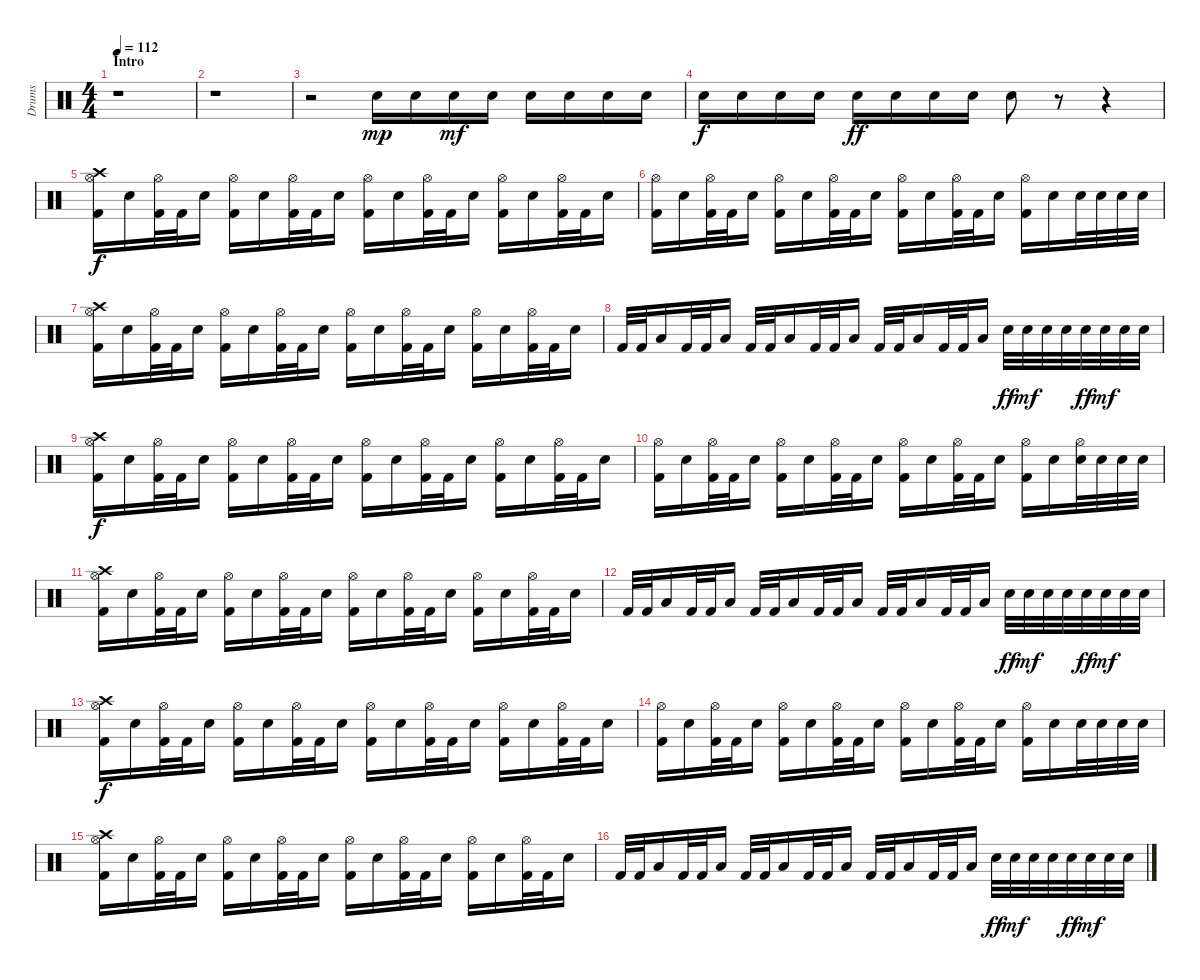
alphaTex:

\track ("Drums" "Drums") {instrument percussion}
\staff {score}
\articulation defaults
\ts (4 4)
\section ("" "Intro")
\tempo 112
\clef neutral
\ks c
r.1{dy mp} |
r.1 |
r.2 "Electric Snare (hit)".16 "Electric Snare (hit)".16 "Electric Snare (hit)".16{dy mf} "Electric Snare (hit)".16 "Electric Snare (hit)".16 "Electric Snare (hit)".16 "Electric Snare (hit)".16 "Electric Snare (hit)".16 |
"Electric Snare (hit)".16{dy f} "Electric Snare (hit)".16 "Electric Snare (hit)".16 "Electric Snare (hit)".16 "Electric Snare (hit)".16{dy ff} "Electric Snare (hit)".16 "Electric Snare (hit)".16 "Electric Snare (hit)".16 "Electric Snare (hit)".8 r.8 r.4 |
("Crash high (hit)" "Hi-Hat (open)" "Kick (hit) 2").16{dy f} "Electric Snare (hit)".16 ("Hi-Hat (open)" "Kick (hit) 2").32 "Kick (hit) 2".32 "Electric Snare (hit)".16 ("Hi-Hat (open)" "Kick (hit) 2").16 "Electric Snare (hit)".16 ("Hi-Hat (open)" "Kick (hit) 2").32 "Kick (hit) 2".32 "Electric Snare (hit)".16 ("Hi-Hat (open)" "Kick (hit) 2").16 "Electric Snare (hit)".16 ("Hi-Hat (open)" "Kick (hit) 2").32 "Kick (hit) 2".32 "Electric Snare (hit)".16 ("Hi-Hat (open)" "Kick (hit) 2").16 "Electric Snare (hit)".16 ("Hi-Hat (open)" "Kick (hit) 2").32 "Kick (hit) 2".32 "Electric Snare (hit)".16 |
("Hi-Hat (open)" "Kick (hit) 2").16 "Electric Snare (hit)".16 ("Hi-Hat (open)" "Kick (hit) 2").32 "Kick (hit) 2".32 "Electric Snare (hit)".16 ("Hi-Hat (open)" "Kick (hit) 2").16 "Electric Snare (hit)".16 ("Hi-Hat (open)" "Kick (hit) 2").32 "Kick (hit) 2".32 "Electric Snare (hit)".16 ("Hi-Hat (open)" "Kick (hit) 2").16 "Electric Snare (hit)".16 ("Hi-Hat (open)" "Kick (hit) 2").32 "Kick (hit) 2".32 "Electric Snare (hit)".16 ("Hi-Hat (open)" "Kick (hit) 2").16 "Electric Snare (hit)".16 "Electric Snare (hit)".32 "Electric Snare (hit)".32 "Electric Snare (hit)".32 "Electric Snare (hit)".32 |
("Crash high (hit)" "Hi-Hat (open)" "Kick (hit) 2").16 "Electric Snare (hit)".16 ("Hi-Hat (open)" "Kick (hit) 2").32 "Kick (hit) 2".32 "Electric Snare (hit)".16 ("Hi-Hat (open)" "Kick (hit) 2").16 "Electric Snare (hit)".16 ("Hi-Hat (open)" "Kick (hit) 2").32 "Kick (hit) 2".32 "Electric Snare (hit)".16 ("Hi-Hat (open)" "Kick (hit) 2").16 "Electric Snare (hit)".16 ("Hi-Hat (open)" "Kick (hit) 2").32 "Kick (hit) 2".32 "Electric Snare (hit)".16 ("Hi-Hat (open)" "Kick (hit) 2").16 "Electric Snare (hit)".16 ("Hi-Hat (open)" "Kick (hit) 2").32 "Kick (hit) 2".32 "Electric Snare (hit)".16 |
"Kick (hit) 2".32 "Kick (hit) 2".32 "Low Tom (hit)".16 "Kick (hit) 2".32 "Kick (hit) 2".32 "Low Tom (hit)".16 "Kick (hit) 2".32 "Kick (hit) 2".32 "Low Tom (hit)".16 "Kick (hit) 2".32 "Kick (hit) 2".32 "Low Tom (hit)".16 "Kick (hit) 2".32 "Kick (hit) 2".32 "Low Tom (hit)".16 "Kick (hit) 2".32 "Kick (hit) 2".32 "Low Tom (hit)".16 "Electric Snare (hit)".32{dy ff} "Electric Snare (hit)".32{dy mf} "Electric Snare (hit)".32 "Electric Snare (hit)".32 "Electric Snare (hit)".32{dy ff} "Electric Snare (hit)".32{dy mf} "Electric Snare (hit)".32 "Electric Snare (hit)".32 |
("Crash high (hit)" "Hi-Hat (open)" "Kick (hit) 2").16{dy f} "Electric Snare (hit)".16 ("Hi-Hat (open)" "Kick (hit) 2").32 "Kick (hit) 2".32 "Electric Snare (hit)".16 ("Hi-Hat (open)" "Kick (hit) 2").16 "Electric Snare (hit)".16 ("Hi-Hat (open)" "Kick (hit) 2").32 "Kick (hit) 2".32 "Electric Snare (hit)".16 ("Hi-Hat (open)" "Kick (hit) 2").16 "Electric Snare (hit)".16 ("Hi-Hat (open)" "Kick (hit) 2").32 "Kick (hit) 2".32 "Electric Snare (hit)".16 ("Hi-Hat (open)" "Kick (hit) 2").16 "Electric Snare (hit)".16 ("Hi-Hat (open)" "Kick (hit) 2").32 "Kick (hit) 2".32 "Electric Snare (hit)".16 |
("Hi-Hat (open)" "Kick (hit) 2").16 "Electric Snare (hit)".16 ("Hi-Hat (open)" "Kick (hit) 2").32 "Kick (hit) 2".32 "Electric Snare (hit)".16 ("Hi-Hat (open)" "Kick (hit) 2").16 "Electric Snare (hit)".16 ("Hi-Hat (open)" "Kick (hit) 2").32 "Kick (hit) 2".32 "Electric Snare (hit)".16 ("Hi-Hat (open)" "Kick (hit) 2").16 "Electric Snare (hit)".16 ("Hi-Hat (open)" "Kick (hit) 2").32 "Kick (hit) 2".32 "Electric Snare (hit)".16 ("Hi-Hat (open)" "Kick (hit) 2").16 "Electric Snare (hit)".16 ("Hi-Hat (open)" "Electric Snare (hit)").32 "Electric Snare (hit)".32 "Electric Snare (hit)".32 "Electric Snare (hit)".32 |
("Crash high (hit)" "Hi-Hat (open)" "Kick (hit) 2").16 "Electric Snare (hit)".16 ("Hi-Hat (open)" "Kick (hit) 2").32 "Kick (hit) 2".32 "Electric Snare (hit)".16 ("Hi-Hat (open)" "Kick (hit) 2").16 "Electric Snare (hit)".16 ("Hi-Hat (open)" "Kick (hit) 2").32 "Kick (hit) 2".32 "Electric Snare (hit)".16 ("Hi-Hat (open)" "Kick (hit) 2").16 "Electric Snare (hit)".16 ("Hi-Hat (open)" "Kick (hit) 2").32 "Kick (hit) 2".32 "Electric Snare (hit)".16 ("Hi-Hat (open)" "Kick (hit) 2").16 "Electric Snare (hit)".16 ("Hi-Hat (open)" "Kick (hit) 2").32 "Kick (hit) 2".32 "Electric Snare (hit)".16 |
"Kick (hit) 2".32 "Kick (hit) 2".32 "Low Tom (hit)".16 "Kick (hit) 2".32 "Kick (hit) 2".32 "Low Tom (hit)".16 "Kick (hit) 2".32 "Kick (hit) 2".32 "Low Tom (hit)".16 "Kick (hit) 2".32 "Kick (hit) 2".32 "Low Tom (hit)".16 "Kick (hit) 2".32 "Kick (hit) 2".32 "Low Tom (hit)".16 "Kick (hit) 2".32 "Kick (hit) 2".32 "Low Tom (hit)".16 "Electric Snare (hit)".32{dy ff} "Electric Snare (hit)".32{dy mf} "Electric Snare (hit)".32 "Electric Snare (hit)".32 "Electric Snare (hit)".32{dy ff} "Electric Snare (hit)".32{dy mf} "Electric Snare (hit)".32 "Electric Snare (hit)".32 |
("Crash high (hit)" "Hi-Hat (open)" "Kick (hit) 2").16{dy f} "Electric Snare (hit)".16 ("Hi-Hat (open)" "Kick (hit) 2").32 "Kick (hit) 2".32 "Electric Snare (hit)".16 ("Hi-Hat (open)" "Kick (hit) 2").16 "Electric Snare (hit)".16 ("Hi-Hat (open)" "Kick (hit) 2").32 "Kick (hit) 2".32 "Electric Snare (hit)".16 ("Hi-Hat (open)" "Kick (hit) 2").16 "Electric Snare (hit)".16 ("Hi-Hat (open)" "Kick (hit) 2").32 "Kick (hit) 2".32 "Electric Snare (hit)".16 ("Hi-Hat (open)" "Kick (hit) 2").16 "Electric Snare (hit)".16 ("Hi-Hat (open)" "Kick (hit) 2").32 "Kick (hit) 2".32 "Electric Snare (hit)".16 |
("Hi-Hat (open)" "Kick (hit) 2").16 "Electric Snare (hit)".16 ("Hi-Hat (open)" "Kick (hit) 2").32 "Kick (hit) 2".32 "Electric Snare (hit)".16 ("Hi-Hat (open)" "Kick (hit) 2").16 "Electric Snare (hit)".16 ("Hi-Hat (open)" "Kick (hit) 2").32 "Kick (hit) 2".32 "Electric Snare (hit)".16 ("Hi-Hat (open)" "Kick (hit) 2").16 "Electric Snare (hit)".16 ("Hi-Hat (open)" "Kick (hit) 2").32 "Kick (hit) 2".32 "Electric Snare (hit)".16 ("Hi-Hat (open)" "Kick (hit) 2").16 "Electric Snare (hit)".16 "Electric Snare (hit)".32 "Electric Snare (hit)".32 "Electric Snare (hit)".32 "Electric Snare (hit)".32 |
("Crash high (hit)" "Hi-Hat (open)" "Kick (hit) 2").16 "Electric Snare (hit)".16 ("Hi-Hat (open)" "Kick (hit) 2").32 "Kick (hit) 2".32 "Electric Snare (hit)".16 ("Hi-Hat (open)" "Kick (hit) 2").16 "Electric Snare (hit)".16 ("Hi-Hat (open)" "Kick (hit) 2").32 "Kick (hit) 2".32 "Electric Snare (hit)".16 ("Hi-Hat (open)" "Kick (hit) 2").16 "Electric Snare (hit)".16 ("Hi-Hat (open)" "Kick (hit) 2").32 "Kick (hit) 2".32 "Electric Snare (hit)".16 ("Hi-Hat (open)" "Kick (hit) 2").16 "Electric Snare (hit)".16 ("Hi-Hat (open)" "Kick (hit) 2").32 "Kick (hit) 2".32 "Electric Snare (hit)".16 |
"Kick (hit) 2".32 "Kick (hit) 2".32 "Low Tom (hit)".16 "Kick (hit) 2".32 "Kick (hit) 2".32 "Low Tom (hit)".16 "Kick (hit) 2".32 "Kick (hit) 2".32 "Low Tom (hit)".16 "Kick (hit) 2".32 "Kick (hit) 2".32 "Low Tom (hit)".16 "Kick (hit) 2".32 "Kick (hit) 2".32 "Low Tom (hit)".16 "Kick (hit) 2".32 "Kick (hit) 2".32 "Low Tom (hit)".16 "Electric Snare (hit)".32{dy ff} "Electric Snare (hit)".32{dy mf} "Electric Snare (hit)".32 "Electric Snare (hit)".32 "Electric Snare (hit)".32{dy ff} "Electric Snare (hit)".32{dy mf} "Electric Snare (hit)".32 "Electric Snare (hit)".32
